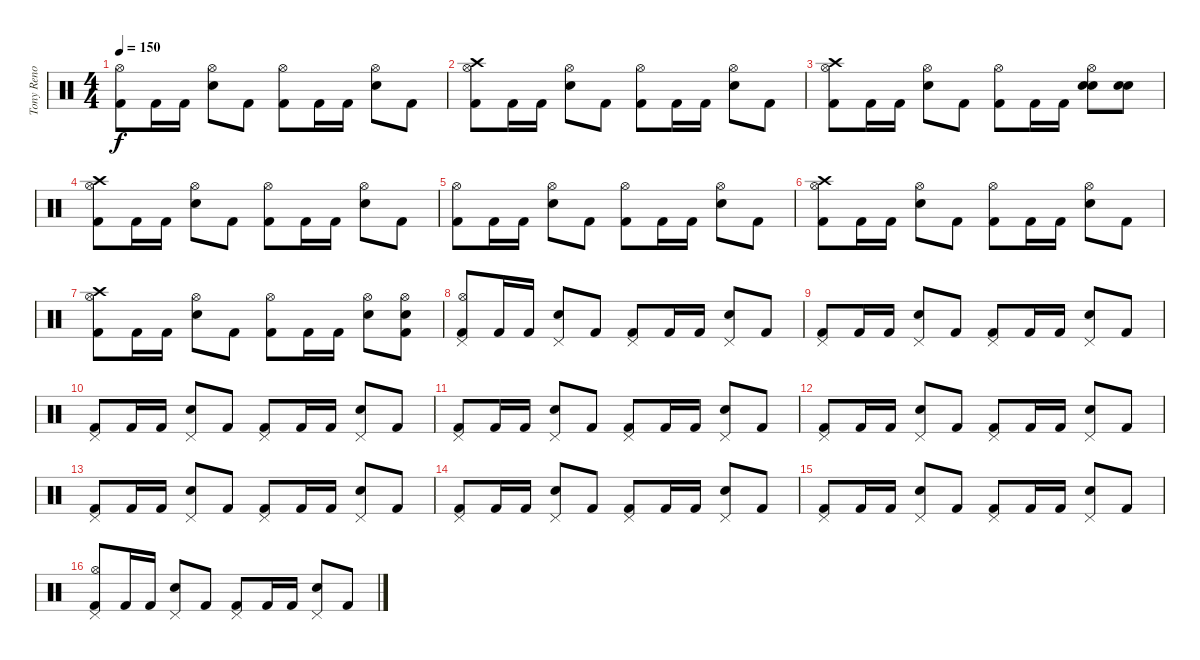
\track ("Tony Reno" "Tony Reno") {instrument percussion}
\staff {score}
\articulation defaults
\ts (4 4)
\tempo 150
\clef neutral
\ks c
("Kick (hit) 2" "Hi-Hat (open)").8{dy f} "Kick (hit) 2".16 "Kick (hit) 2".16 ("Snare (hit) 2" "Hi-Hat (open)").8 "Kick (hit) 2".8 ("Kick (hit) 2" "Hi-Hat (open)").8 "Kick (hit) 2".16 "Kick (hit) 2".16 ("Snare (hit) 2" "Hi-Hat (open)").8 "Kick (hit) 2".8 |
("Kick (hit) 2" "Hi-Hat (open)" "Crash high (hit)").8 "Kick (hit) 2".16 "Kick (hit) 2".16 ("Snare (hit) 2" "Hi-Hat (open)").8 "Kick (hit) 2".8 ("Kick (hit) 2" "Hi-Hat (open)").8 "Kick (hit) 2".16 "Kick (hit) 2".16 ("Snare (hit) 2" "Hi-Hat (open)").8 "Kick (hit) 2".8 |
("Kick (hit) 2" "Hi-Hat (open)" "Crash high (hit)").8 "Kick (hit) 2".16 "Kick (hit) 2".16 ("Snare (hit) 2" "Hi-Hat (open)").8 "Kick (hit) 2".8 ("Kick (hit) 2" "Hi-Hat (open)").8 "Kick (hit) 2".16 "Kick (hit) 2".16 ("Snare (hit) 2" "Electric Snare (hit)" "Hi-Hat (open)").8 ("Snare (hit) 2" "Electric Snare (hit)").8 |
("Kick (hit) 2" "Hi-Hat (open)" "Crash high (hit)").8 "Kick (hit) 2".16 "Kick (hit) 2".16 ("Snare (hit) 2" "Hi-Hat (open)").8 "Kick (hit) 2".8 ("Kick (hit) 2" "Hi-Hat (open)").8 "Kick (hit) 2".16 "Kick (hit) 2".16 ("Snare (hit) 2" "Hi-Hat (open)").8 "Kick (hit) 2".8 |
("Kick (hit) 2" "Hi-Hat (open)").8 "Kick (hit) 2".16 "Kick (hit) 2".16 ("Snare (hit) 2" "Hi-Hat (open)").8 "Kick (hit) 2".8 ("Kick (hit) 2" "Hi-Hat (open)").8 "Kick (hit) 2".16 "Kick (hit) 2".16 ("Snare (hit) 2" "Hi-Hat (open)").8 "Kick (hit) 2".8 |
("Kick (hit) 2" "Hi-Hat (open)" "Crash high (hit)").8 "Kick (hit) 2".16 "Kick (hit) 2".16 ("Snare (hit) 2" "Hi-Hat (open)").8 "Kick (hit) 2".8 ("Kick (hit) 2" "Hi-Hat (open)").8 "Kick (hit) 2".16 "Kick (hit) 2".16 ("Snare (hit) 2" "Hi-Hat (open)").8 "Kick (hit) 2".8 |
("Kick (hit) 2" "Hi-Hat (open)" "Crash high (hit)").8 "Kick (hit) 2".16 "Kick (hit) 2".16 ("Snare (hit) 2" "Hi-Hat (open)").8 "Kick (hit) 2".8 ("Kick (hit) 2" "Hi-Hat (open)").8 "Kick (hit) 2".16 "Kick (hit) 2".16 ("Snare (hit) 2" "Hi-Hat (open)").8 ("Kick (hit) 2" "Snare (hit) 2" "Hi-Hat (open)").8 |
("Kick (hit) 2" "Pedal Hi-Hat (hit)" "Hi-Hat (open)").8 "Kick (hit) 2".16 "Kick (hit) 2".16 ("Snare (hit) 2" "Pedal Hi-Hat (hit)").8 "Kick (hit) 2".8 ("Kick (hit) 2" "Pedal Hi-Hat (hit)").8 "Kick (hit) 2".16 "Kick (hit) 2".16 ("Snare (hit) 2" "Pedal Hi-Hat (hit)").8 "Kick (hit) 2".8 |
("Kick (hit) 2" "Pedal Hi-Hat (hit)").8 "Kick (hit) 2".16 "Kick (hit) 2".16 ("Snare (hit) 2" "Pedal Hi-Hat (hit)").8 "Kick (hit) 2".8 ("Kick (hit) 2" "Pedal Hi-Hat (hit)").8 "Kick (hit) 2".16 "Kick (hit) 2".16 ("Snare (hit) 2" "Pedal Hi-Hat (hit)").8 "Kick (hit) 2".8 |
("Kick (hit) 2" "Pedal Hi-Hat (hit)").8 "Kick (hit) 2".16 "Kick (hit) 2".16 ("Snare (hit) 2" "Pedal Hi-Hat (hit)").8 "Kick (hit) 2".8 ("Kick (hit) 2" "Pedal Hi-Hat (hit)").8 "Kick (hit) 2".16 "Kick (hit) 2".16 ("Snare (hit) 2" "Pedal Hi-Hat (hit)").8 "Kick (hit) 2".8 |
("Kick (hit) 2" "Pedal Hi-Hat (hit)").8 "Kick (hit) 2".16 "Kick (hit) 2".16 ("Snare (hit) 2" "Pedal Hi-Hat (hit)").8 "Kick (hit) 2".8 ("Kick (hit) 2" "Pedal Hi-Hat (hit)").8 "Kick (hit) 2".16 "Kick (hit) 2".16 ("Snare (hit) 2" "Pedal Hi-Hat (hit)").8 "Kick (hit) 2".8 |
("Kick (hit) 2" "Pedal Hi-Hat (hit)").8 "Kick (hit) 2".16 "Kick (hit) 2".16 ("Snare (hit) 2" "Pedal Hi-Hat (hit)").8 "Kick (hit) 2".8 ("Kick (hit) 2" "Pedal Hi-Hat (hit)").8 "Kick (hit) 2".16 "Kick (hit) 2".16 ("Snare (hit) 2" "Pedal Hi-Hat (hit)").8 "Kick (hit) 2".8 |
("Kick (hit) 2" "Pedal Hi-Hat (hit)").8 "Kick (hit) 2".16 "Kick (hit) 2".16 ("Snare (hit) 2" "Pedal Hi-Hat (hit)").8 "Kick (hit) 2".8 ("Kick (hit) 2" "Pedal Hi-Hat (hit)").8 "Kick (hit) 2".16 "Kick (hit) 2".16 ("Snare (hit) 2" "Pedal Hi-Hat (hit)").8 "Kick (hit) 2".8 |
("Kick (hit) 2" "Pedal Hi-Hat (hit)").8 "Kick (hit) 2".16 "Kick (hit) 2".16 ("Snare (hit) 2" "Pedal Hi-Hat (hit)").8 "Kick (hit) 2".8 ("Kick (hit) 2" "Pedal Hi-Hat (hit)").8 "Kick (hit) 2".16 "Kick (hit) 2".16 ("Snare (hit) 2" "Pedal Hi-Hat (hit)").8 "Kick (hit) 2".8 |
("Kick (hit) 2" "Pedal Hi-Hat (hit)").8 "Kick (hit) 2".16 "Kick (hit) 2".16 ("Snare (hit) 2" "Pedal Hi-Hat (hit)").8 "Kick (hit) 2".8 ("Kick (hit) 2" "Pedal Hi-Hat (hit)").8 "Kick (hit) 2".16 "Kick (hit) 2".16 ("Snare (hit) 2" "Pedal Hi-Hat (hit)").8 "Kick (hit) 2".8 |
("Kick (hit) 2" "Pedal Hi-Hat (hit)" "Hi-Hat (open)").8 "Kick (hit) 2".16 "Kick (hit) 2".16 ("Snare (hit) 2" "Pedal Hi-Hat (hit)").8 "Kick (hit) 2".8 ("Kick (hit) 2" "Pedal Hi-Hat (hit)").8 "Kick (hit) 2".16 "Kick (hit) 2".16 ("Snare (hit) 2" "Pedal Hi-Hat (hit)").8 "Kick (hit) 2".8
